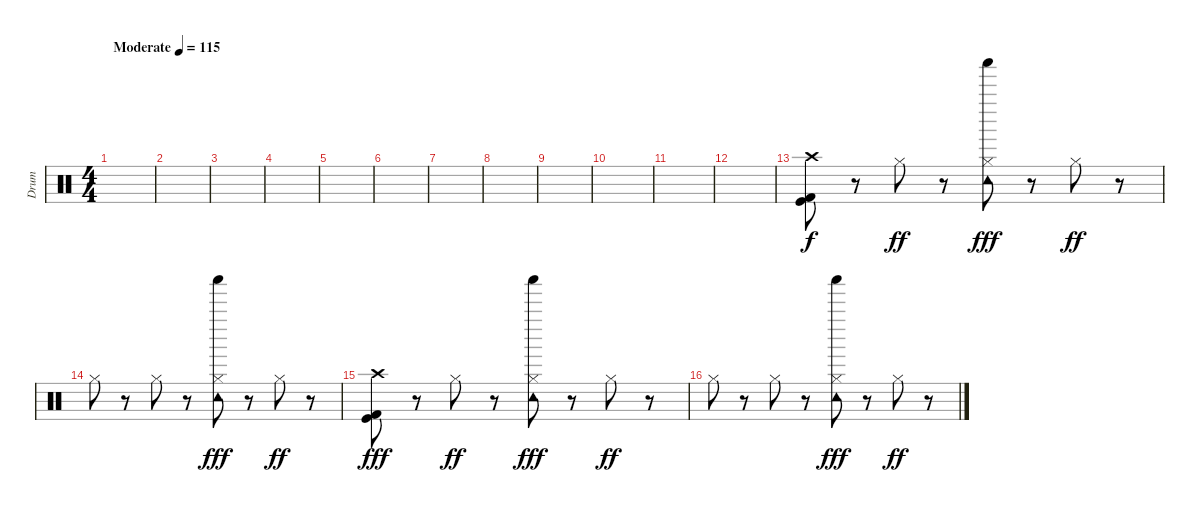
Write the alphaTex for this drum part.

\track ("Drum" "Drum") {instrument percussion}
\staff {score}
\articulation defaults
\ts (4 4)
\tempo (115 "Moderate")
\clef neutral
\ks c
|
|
|
|
|
|
|
|
|
|
|
|
("Crash high (hit)" "Kick (hit)" "Kick (hit) 2").8 r.8 "Hi-Hat (closed)".8{dy ff} r.8 ("Hi-Hat (closed)" "Shaker (hit)" "Tambourine (hit)").8{dy fff} r.8 "Hi-Hat (closed)".8{dy ff} r.8 |
"Hi-Hat (closed)".8 r.8 "Hi-Hat (closed)".8 r.8 ("Hi-Hat (closed)" "Shaker (hit)" "Tambourine (hit)").8{dy fff} r.8 "Hi-Hat (closed)".8{dy ff} r.8 |
("Crash high (hit)" "Kick (hit)" "Kick (hit) 2").8{dy fff} r.8 "Hi-Hat (closed)".8{dy ff} r.8 ("Hi-Hat (closed)" "Shaker (hit)" "Tambourine (hit)").8{dy fff} r.8 "Hi-Hat (closed)".8{dy ff} r.8 |
"Hi-Hat (closed)".8 r.8 "Hi-Hat (closed)".8 r.8 ("Hi-Hat (closed)" "Shaker (hit)" "Tambourine (hit)").8{dy fff} r.8 "Hi-Hat (closed)".8{dy ff} r.8
